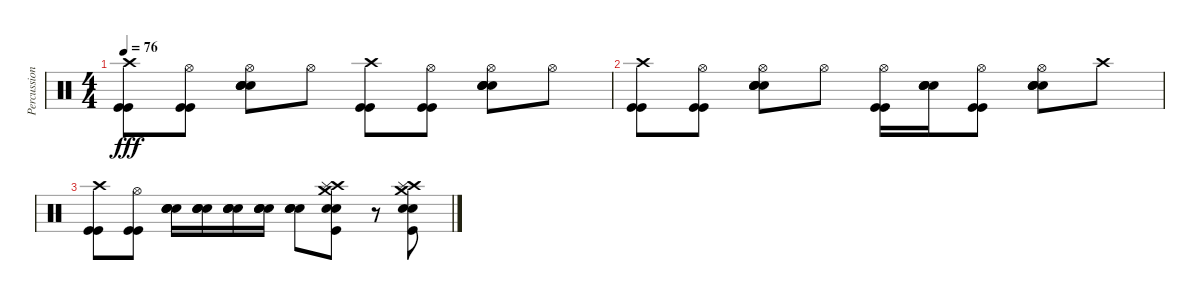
\track ("Percussion" "Percussion") {instrument percussion}
\staff {score}
\articulation defaults
\ts (4 4)
\tempo 76
\clef neutral
\ks c
("Crash high (hit)" "Kick (hit)" "Kick (hit)").8{dy fff} ("Hi-Hat (open)" "Kick (hit)" "Kick (hit)").8 ("Hi-Hat (open)" "Electric Snare (hit)" "Snare (hit) 2" "Snare (hit) 2" "Electric Snare (hit)").8 "Hi-Hat (open)".8 ("Crash high (hit)" "Kick (hit)" "Kick (hit)").8 ("Hi-Hat (open)" "Kick (hit)" "Kick (hit)").8 ("Hi-Hat (open)" "Electric Snare (hit)" "Snare (hit) 2" "Snare (hit) 2" "Electric Snare (hit)").8 "Hi-Hat (open)".8 |
("Crash high (hit)" "Kick (hit)" "Kick (hit)").8 ("Hi-Hat (open)" "Kick (hit)" "Kick (hit)").8 ("Hi-Hat (open)" "Electric Snare (hit)" "Snare (hit) 2" "Snare (hit) 2" "Electric Snare (hit)").8 "Hi-Hat (open)".8 ("Hi-Hat (open)" "Kick (hit)" "Kick (hit)").16 ("Electric Snare (hit)" "Snare (hit) 2" "Snare (hit) 2" "Electric Snare (hit)").16 ("Hi-Hat (open)" "Kick (hit)" "Kick (hit)").8 ("Hi-Hat (open)" "Electric Snare (hit)" "Snare (hit) 2" "Snare (hit) 2" "Electric Snare (hit)").8 "Crash high (hit)".8 |
("Crash high (hit)" "Kick (hit)" "Kick (hit)").8 ("Hi-Hat (open)" "Kick (hit)" "Kick (hit)").8 ("Electric Snare (hit)" "Snare (hit) 2" "Snare (hit) 2" "Electric Snare (hit)").16 ("Electric Snare (hit)" "Snare (hit) 2" "Snare (hit) 2" "Electric Snare (hit)").16 ("Electric Snare (hit)" "Snare (hit) 2" "Snare (hit) 2" "Electric Snare (hit)").16 ("Electric Snare (hit)" "Snare (hit) 2" "Snare (hit) 2" "Electric Snare (hit)").16 ("Electric Snare (hit)" "Snare (hit) 2" "Snare (hit) 2" "Electric Snare (hit)").8 ("Crash high (hit)" "Crash medium (hit)" "Splash (hit)" "Electric Snare (hit)" "Snare (hit) 2" "Kick (hit)").8 r.8 ("Crash high (hit)" "Crash medium (hit)" "Splash (hit)" "Electric Snare (hit)" "Snare (hit) 2" "Kick (hit)").8
